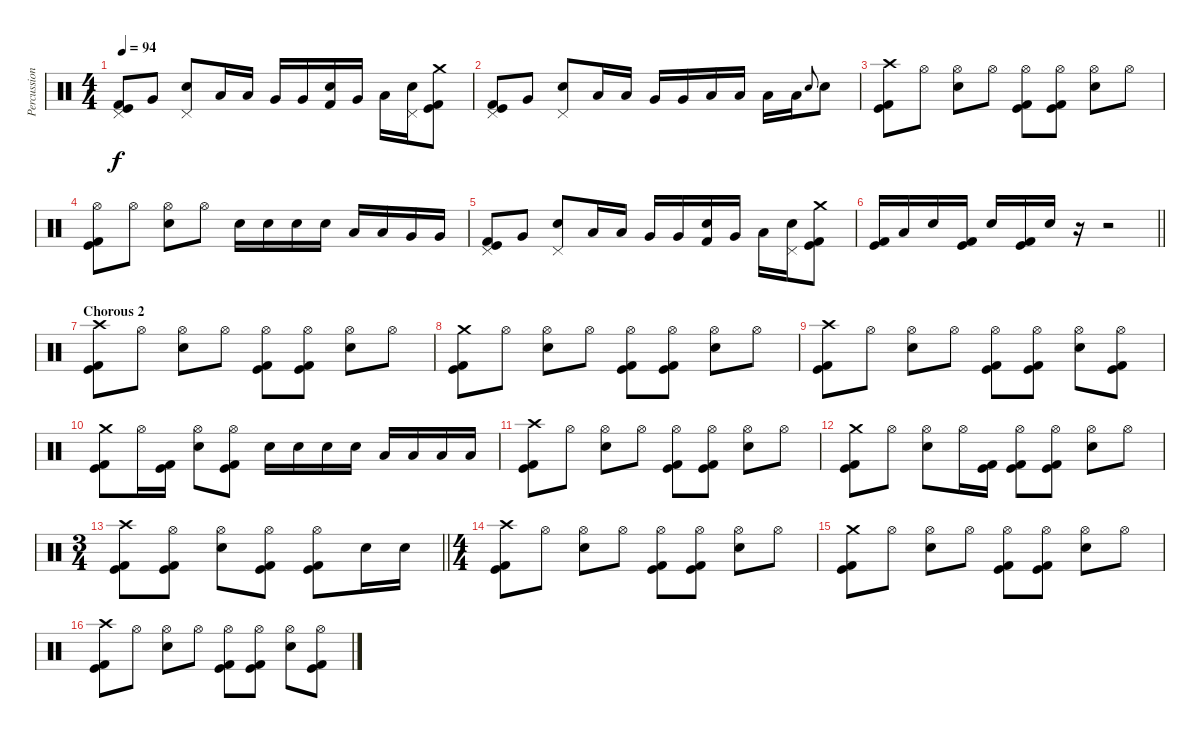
\track ("Percussion" "Percussion") {instrument percussion}
\staff {score}
\articulation defaults
\ts (4 4)
\tempo 94
\clef neutral
\ks c
("Pedal Hi-Hat (hit)" "Kick (hit)" "Kick (hit) 2").8{dy f} "Very Low Tom (hit)".8 ("Pedal Hi-Hat (hit)" "Electric Snare (hit)").8 "Low Tom (hit)".16 "Low Tom (hit)".16 "Very Low Tom (hit)".16 "Very Low Tom (hit)".16 ("Electric Snare (hit)" "Kick (hit) 2").16 "Very Low Tom (hit)".16 "Low Floor Tom (hit)".16 ("Pedal Hi-Hat (hit)" "Electric Snare (hit)").16 ("Crash medium (hit)" "Kick (hit)" "Kick (hit) 2").8 |
("Pedal Hi-Hat (hit)" "Kick (hit)" "Kick (hit) 2").8 "Very Low Tom (hit)".8 ("Pedal Hi-Hat (hit)" "Electric Snare (hit)").8 "Low Tom (hit)".16 "Low Tom (hit)".16 "Very Low Tom (hit)".16 "Very Low Tom (hit)".16 "Low Floor Tom (hit)".16 "Low Floor Tom (hit)".16 "Low Tom (hit)".16 "Low Tom (hit)".16 "Electric Snare (hit)".8{gr onbeat} "Electric Snare (hit)".8 |
("Crash high (hit)" "Kick (hit)" "Kick (hit) 2").8 "Hi-Hat (open)".8 ("Hi-Hat (open)" "Electric Snare (hit)").8 "Hi-Hat (open)".8 ("Hi-Hat (open)" "Kick (hit)" "Kick (hit) 2").8 ("Hi-Hat (open)" "Kick (hit)" "Kick (hit) 2").8 ("Hi-Hat (open)" "Electric Snare (hit)").8 "Hi-Hat (open)".8 |
("Hi-Hat (open)" "Kick (hit)" "Kick (hit) 2").8 "Hi-Hat (open)".8 ("Hi-Hat (open)" "Electric Snare (hit)").8 "Hi-Hat (open)".8 "Electric Snare (hit)".16 "Electric Snare (hit)".16 "Electric Snare (hit)".16 "Electric Snare (hit)".16 "Low Tom (hit)".16 "Low Tom (hit)".16 "Very Low Tom (hit)".16 "Very Low Tom (hit)".16 |
("Pedal Hi-Hat (hit)" "Kick (hit)" "Kick (hit) 2").8 "Very Low Tom (hit)".8 ("Pedal Hi-Hat (hit)" "Electric Snare (hit)").8 "Low Tom (hit)".16 "Low Tom (hit)".16 "Very Low Tom (hit)".16 "Very Low Tom (hit)".16 ("Electric Snare (hit)" "Kick (hit) 2").16 "Very Low Tom (hit)".16 "Low Floor Tom (hit)".16 ("Pedal Hi-Hat (hit)" "Electric Snare (hit)").16 ("Crash medium (hit)" "Kick (hit)" "Kick (hit) 2").8 |
\barLineRight lightlight
("Kick (hit)" "Kick (hit) 2").16 "Low Tom (hit)".16 "Electric Snare (hit)".16 ("Kick (hit)" "Kick (hit) 2").16 "Electric Snare (hit)".16 ("Kick (hit)" "Kick (hit) 2").16 "Electric Snare (hit)".16 r.16 r.2 |
\section ("" "Chorous 2")
("Crash high (hit)" "Kick (hit)" "Kick (hit) 2").8 "Hi-Hat (open)".8 ("Hi-Hat (open)" "Electric Snare (hit)").8 "Hi-Hat (open)".8 ("Hi-Hat (open)" "Kick (hit)" "Kick (hit) 2").8 ("Hi-Hat (open)" "Kick (hit)" "Kick (hit) 2").8 ("Hi-Hat (open)" "Electric Snare (hit)").8 "Hi-Hat (open)".8 |
("Crash medium (hit)" "Kick (hit)" "Kick (hit) 2").8 "Hi-Hat (open)".8 ("Hi-Hat (open)" "Electric Snare (hit)").8 "Hi-Hat (open)".8 ("Hi-Hat (open)" "Kick (hit)" "Kick (hit) 2").8 ("Hi-Hat (open)" "Kick (hit)" "Kick (hit) 2").8 ("Hi-Hat (open)" "Electric Snare (hit)").8 "Hi-Hat (open)".8 |
("Crash high (hit)" "Kick (hit)" "Kick (hit) 2").8 "Hi-Hat (open)".8 ("Hi-Hat (open)" "Electric Snare (hit)").8 "Hi-Hat (open)".8 ("Hi-Hat (open)" "Kick (hit)" "Kick (hit) 2").8 ("Hi-Hat (open)" "Kick (hit)" "Kick (hit) 2").8 ("Hi-Hat (open)" "Electric Snare (hit)").8 ("Hi-Hat (open)" "Kick (hit)" "Kick (hit) 2").8 |
("Crash medium (hit)" "Kick (hit)" "Kick (hit) 2").8 "Hi-Hat (open)".16 ("Kick (hit)" "Kick (hit) 2").16 ("Hi-Hat (open)" "Electric Snare (hit)").8 ("Hi-Hat (open)" "Kick (hit)" "Kick (hit) 2").8 "Electric Snare (hit)".16 "Electric Snare (hit)".16 "Electric Snare (hit)".16 "Electric Snare (hit)".16 "Low Tom (hit)".16 "Low Tom (hit)".16 "Low Tom (hit)".16 "Low Tom (hit)".16 |
("Crash high (hit)" "Kick (hit)" "Kick (hit) 2").8 "Hi-Hat (open)".8 ("Hi-Hat (open)" "Electric Snare (hit)").8 "Hi-Hat (open)".8 ("Hi-Hat (open)" "Kick (hit)" "Kick (hit) 2").8 ("Hi-Hat (open)" "Kick (hit)" "Kick (hit) 2").8 ("Hi-Hat (open)" "Electric Snare (hit)").8 "Hi-Hat (open)".8 |
("Crash medium (hit)" "Kick (hit)" "Kick (hit) 2").8 "Hi-Hat (open)".8 ("Hi-Hat (open)" "Electric Snare (hit)").8 "Hi-Hat (open)".16 ("Kick (hit)" "Kick (hit) 2").16 ("Hi-Hat (open)" "Kick (hit)" "Kick (hit) 2").8 ("Hi-Hat (open)" "Kick (hit)" "Kick (hit) 2").8 ("Hi-Hat (open)" "Electric Snare (hit)").8 "Hi-Hat (open)".8 |
\ts (3 4)
\barLineRight lightlight
("Crash high (hit)" "Kick (hit)" "Kick (hit) 2").8 ("Hi-Hat (open)" "Kick (hit)" "Kick (hit) 2").8 ("Hi-Hat (open)" "Electric Snare (hit)").8 ("Hi-Hat (open)" "Kick (hit)" "Kick (hit) 2").8 ("Hi-Hat (open)" "Kick (hit)" "Kick (hit) 2").8 "Electric Snare (hit)".16 "Electric Snare (hit)".16 |
\ts (4 4)
\section ("" "")
("Crash high (hit)" "Kick (hit)" "Kick (hit) 2").8 "Hi-Hat (open)".8 ("Hi-Hat (open)" "Electric Snare (hit)").8 "Hi-Hat (open)".8 ("Hi-Hat (open)" "Kick (hit)" "Kick (hit) 2").8 ("Hi-Hat (open)" "Kick (hit)" "Kick (hit) 2").8 ("Hi-Hat (open)" "Electric Snare (hit)").8 "Hi-Hat (open)".8 |
("Crash medium (hit)" "Kick (hit)" "Kick (hit) 2").8 "Hi-Hat (open)".8 ("Hi-Hat (open)" "Electric Snare (hit)").8 "Hi-Hat (open)".8 ("Hi-Hat (open)" "Kick (hit)" "Kick (hit) 2").8 ("Hi-Hat (open)" "Kick (hit)" "Kick (hit) 2").8 ("Hi-Hat (open)" "Electric Snare (hit)").8 "Hi-Hat (open)".8 |
("Crash high (hit)" "Kick (hit)" "Kick (hit) 2").8 "Hi-Hat (open)".8 ("Hi-Hat (open)" "Electric Snare (hit)").8 "Hi-Hat (open)".8 ("Hi-Hat (open)" "Kick (hit)" "Kick (hit) 2").8 ("Hi-Hat (open)" "Kick (hit)" "Kick (hit) 2").8 ("Hi-Hat (open)" "Electric Snare (hit)").8 ("Hi-Hat (open)" "Kick (hit)" "Kick (hit) 2").8
